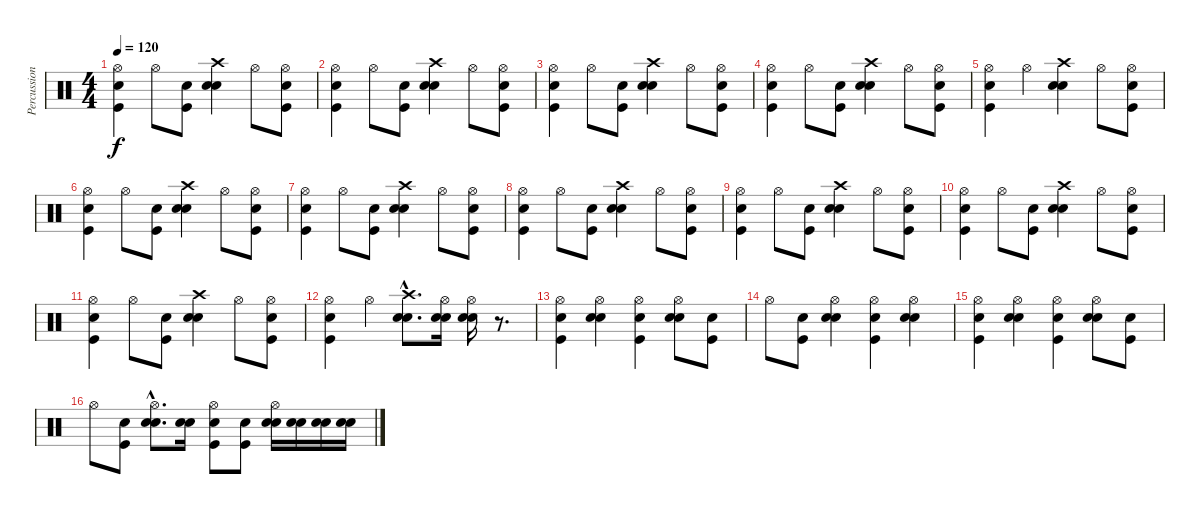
\track ("Percussions" "Percussion") {instrument percussion}
\staff {score}
\articulation defaults
\ts (4 4)
\tempo 120
\clef neutral
\ks c
("Hi-Hat (open)" "Snare (hit) 2" "Kick (hit)").4{dy f} "Hi-Hat (open)".8 ("Snare (hit) 2" "Kick (hit)").8 ("Crash high (hit)" "Snare (hit) 2" "Electric Snare (hit)").4 "Hi-Hat (open)".8 ("Hi-Hat (open)" "Snare (hit) 2" "Kick (hit)").8 |
("Hi-Hat (open)" "Snare (hit) 2" "Kick (hit)").4 "Hi-Hat (open)".8 ("Snare (hit) 2" "Kick (hit)").8 ("Crash high (hit)" "Snare (hit) 2" "Electric Snare (hit)").4 "Hi-Hat (open)".8 ("Hi-Hat (open)" "Snare (hit) 2" "Kick (hit)").8 |
("Hi-Hat (open)" "Snare (hit) 2" "Kick (hit)").4 "Hi-Hat (open)".8 ("Snare (hit) 2" "Kick (hit)").8 ("Crash high (hit)" "Snare (hit) 2" "Electric Snare (hit)").4 "Hi-Hat (open)".8 ("Hi-Hat (open)" "Snare (hit) 2" "Kick (hit)").8 |
("Hi-Hat (open)" "Snare (hit) 2" "Kick (hit)").4 "Hi-Hat (open)".8 ("Snare (hit) 2" "Kick (hit)").8 ("Crash high (hit)" "Snare (hit) 2" "Electric Snare (hit)").4 "Hi-Hat (open)".8 ("Hi-Hat (open)" "Snare (hit) 2" "Kick (hit)").8 |
("Hi-Hat (open)" "Snare (hit) 2" "Kick (hit)").4 "Hi-Hat (open)".4 ("Crash high (hit)" "Snare (hit) 2" "Electric Snare (hit)").4 "Hi-Hat (open)".8 ("Hi-Hat (open)" "Snare (hit) 2" "Kick (hit)").8 |
("Hi-Hat (open)" "Snare (hit) 2" "Kick (hit)").4 "Hi-Hat (open)".8 ("Snare (hit) 2" "Kick (hit)").8 ("Crash high (hit)" "Snare (hit) 2" "Electric Snare (hit)").4 "Hi-Hat (open)".8 ("Hi-Hat (open)" "Snare (hit) 2" "Kick (hit)").8 |
("Hi-Hat (open)" "Snare (hit) 2" "Kick (hit)").4 "Hi-Hat (open)".8 ("Snare (hit) 2" "Kick (hit)").8 ("Crash high (hit)" "Snare (hit) 2" "Electric Snare (hit)").4 "Hi-Hat (open)".8 ("Hi-Hat (open)" "Snare (hit) 2" "Kick (hit)").8 |
("Hi-Hat (open)" "Snare (hit) 2" "Kick (hit)").4 "Hi-Hat (open)".8 ("Snare (hit) 2" "Kick (hit)").8 ("Crash high (hit)" "Snare (hit) 2" "Electric Snare (hit)").4 "Hi-Hat (open)".8 ("Hi-Hat (open)" "Snare (hit) 2" "Kick (hit)").8 |
("Hi-Hat (open)" "Snare (hit) 2" "Kick (hit)").4 "Hi-Hat (open)".8 ("Snare (hit) 2" "Kick (hit)").8 ("Crash high (hit)" "Snare (hit) 2" "Electric Snare (hit)").4 "Hi-Hat (open)".8 ("Hi-Hat (open)" "Snare (hit) 2" "Kick (hit)").8 |
("Hi-Hat (open)" "Snare (hit) 2" "Kick (hit)").4 "Hi-Hat (open)".8 ("Snare (hit) 2" "Kick (hit)").8 ("Crash high (hit)" "Snare (hit) 2" "Electric Snare (hit)").4 "Hi-Hat (open)".8 ("Hi-Hat (open)" "Snare (hit) 2" "Kick (hit)").8 |
("Hi-Hat (open)" "Snare (hit) 2" "Kick (hit)").4 "Hi-Hat (open)".8 ("Snare (hit) 2" "Kick (hit)").8 ("Crash high (hit)" "Snare (hit) 2" "Electric Snare (hit)").4 "Hi-Hat (open)".8 ("Hi-Hat (open)" "Snare (hit) 2" "Kick (hit)").8 |
("Hi-Hat (open)" "Snare (hit) 2" "Kick (hit)").4 "Hi-Hat (open)".4 ("Crash high (hit)"{hac} "Snare (hit) 2"{hac} "Electric Snare (hit)"{hac}).8{d} ("Hi-Hat (open)" "Snare (hit) 2" "Electric Snare (hit)").16 ("Hi-Hat (open)" "Snare (hit) 2" "Electric Snare (hit)").16 r.8{d} |
("Hi-Hat (open)" "Snare (hit) 2" "Kick (hit)").4 ("Hi-Hat (open)" "Snare (hit) 2" "Electric Snare (hit)").4 ("Hi-Hat (open)" "Snare (hit) 2" "Kick (hit)").4 ("Hi-Hat (open)" "Snare (hit) 2" "Electric Snare (hit)").8 ("Snare (hit) 2" "Kick (hit)").8 |
"Hi-Hat (open)".8 ("Snare (hit) 2" "Kick (hit)").8 ("Hi-Hat (open)" "Snare (hit) 2" "Electric Snare (hit)").4 ("Hi-Hat (open)" "Snare (hit) 2" "Kick (hit)").4 ("Hi-Hat (open)" "Snare (hit) 2" "Electric Snare (hit)").4 |
("Hi-Hat (open)" "Snare (hit) 2" "Kick (hit)").4 ("Hi-Hat (open)" "Snare (hit) 2" "Electric Snare (hit)").4 ("Hi-Hat (open)" "Snare (hit) 2" "Kick (hit)").4 ("Hi-Hat (open)" "Snare (hit) 2" "Electric Snare (hit)").8 ("Snare (hit) 2" "Kick (hit)").8 |
"Hi-Hat (open)".8 ("Snare (hit) 2" "Kick (hit)").8 ("Hi-Hat (open)"{hac} "Snare (hit) 2"{hac} "Electric Snare (hit)"{hac}).8{d} ("Snare (hit) 2" "Electric Snare (hit)").16 ("Hi-Hat (open)" "Snare (hit) 2" "Kick (hit)").8 ("Snare (hit) 2" "Kick (hit)").8 ("Hi-Hat (open)" "Snare (hit) 2" "Electric Snare (hit)").16 ("Snare (hit) 2" "Electric Snare (hit)").16 ("Snare (hit) 2" "Electric Snare (hit)").16 ("Snare (hit) 2" "Electric Snare (hit)").16
